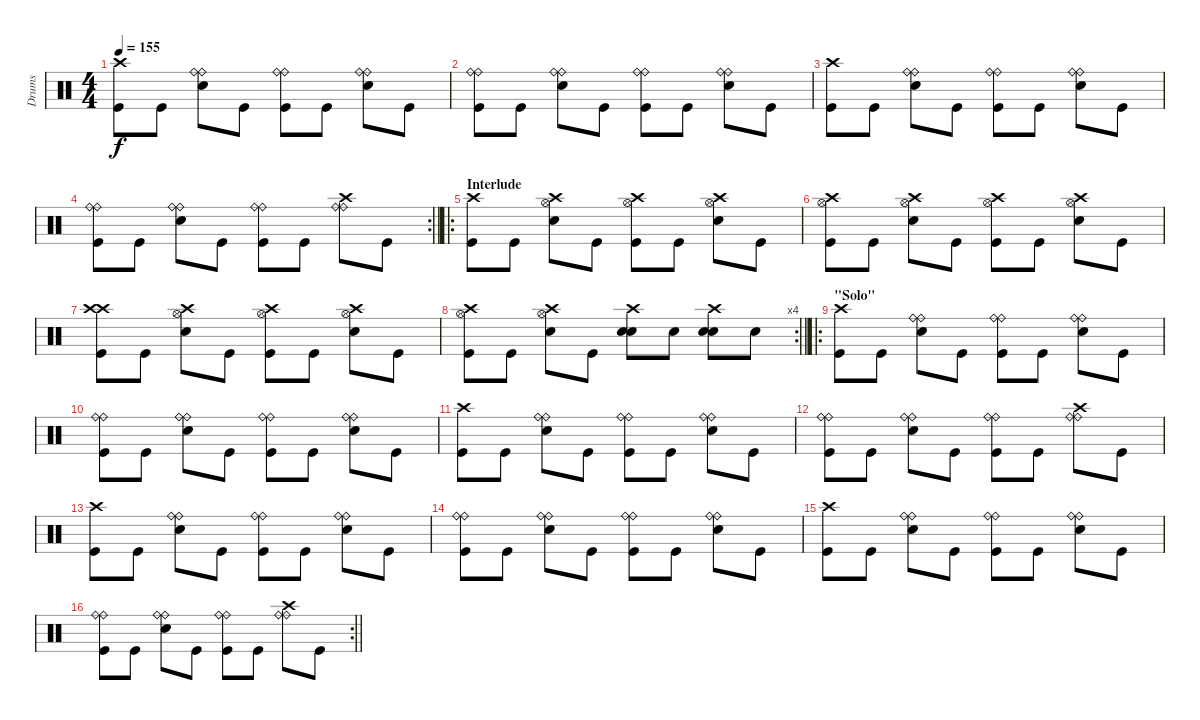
\track ("Drums" "Drums") {instrument percussion}
\staff {score}
\articulation defaults
\ts (4 4)
\tempo 155
\clef neutral
\ks c
("Crash high (hit)" "Kick (hit)").8{dy f} "Kick (hit)".8 ("Electric Snare (hit)" "Ride (bell)" "Ride (bell)").8 "Kick (hit)".8 ("Kick (hit)" "Ride (bell)" "Ride (bell)").8 "Kick (hit)".8 ("Electric Snare (hit)" "Ride (bell)" "Ride (bell)").8 "Kick (hit)".8 |
("Kick (hit)" "Ride (bell)" "Ride (bell)").8 "Kick (hit)".8 ("Electric Snare (hit)" "Ride (bell)" "Ride (bell)").8 "Kick (hit)".8 ("Kick (hit)" "Ride (bell)" "Ride (bell)").8 "Kick (hit)".8 ("Electric Snare (hit)" "Ride (bell)" "Ride (bell)").8 "Kick (hit)".8 |
("Crash high (hit)" "Kick (hit)").8 "Kick (hit)".8 ("Electric Snare (hit)" "Ride (bell)" "Ride (bell)").8 "Kick (hit)".8 ("Kick (hit)" "Ride (bell)" "Ride (bell)").8 "Kick (hit)".8 ("Electric Snare (hit)" "Ride (bell)" "Ride (bell)").8 "Kick (hit)".8 |
\rc 2
\barLineRight lightlight
("Kick (hit)" "Ride (bell)" "Ride (bell)").8 "Kick (hit)".8 ("Electric Snare (hit)" "Ride (bell)" "Ride (bell)").8 "Kick (hit)".8 ("Kick (hit)" "Ride (bell)" "Ride (bell)").8 "Kick (hit)".8 ("Crash high (hit)" "Ride (bell)" "Ride (bell)").8 "Kick (hit)".8 |
\ro
\section ("" "Interlude")
("Crash high (hit)" "Kick (hit)").8 "Kick (hit)".8 ("Electric Snare (hit)" "Hi-Hat (open)" "Crash high (hit)").8 "Kick (hit)".8 ("Kick (hit)" "Hi-Hat (open)" "Crash high (hit)").8 "Kick (hit)".8 ("Electric Snare (hit)" "Hi-Hat (open)" "Crash high (hit)").8 "Kick (hit)".8 |
("Kick (hit)" "Hi-Hat (open)" "Crash high (hit)").8 "Kick (hit)".8 ("Electric Snare (hit)" "Hi-Hat (open)" "Crash high (hit)").8 "Kick (hit)".8 ("Kick (hit)" "Hi-Hat (open)" "Crash high (hit)").8 "Kick (hit)".8 ("Electric Snare (hit)" "Hi-Hat (open)" "Crash high (hit)").8 "Kick (hit)".8 |
("Crash high (hit)" "Kick (hit)" "Crash high (hit)").8 "Kick (hit)".8 ("Electric Snare (hit)" "Hi-Hat (open)" "Crash high (hit)").8 "Kick (hit)".8 ("Kick (hit)" "Hi-Hat (open)" "Crash high (hit)").8 "Kick (hit)".8 ("Electric Snare (hit)" "Hi-Hat (open)" "Crash high (hit)").8 "Kick (hit)".8 |
\rc 4
\barLineRight lightlight
("Kick (hit)" "Hi-Hat (open)" "Crash high (hit)").8 "Kick (hit)".8 ("Electric Snare (hit)" "Hi-Hat (open)" "Crash high (hit)").8 "Kick (hit)".8 ("Electric Snare (hit)" "Electric Snare (hit)" "Crash high (hit)").8 "Electric Snare (hit)".8 ("Electric Snare (hit)" "Electric Snare (hit)" "Crash high (hit)").8 "Electric Snare (hit)".8 |
\ro
\section ("" "\"Solo\"")
("Crash high (hit)" "Kick (hit)").8 "Kick (hit)".8 ("Electric Snare (hit)" "Ride (bell)" "Ride (bell)").8 "Kick (hit)".8 ("Kick (hit)" "Ride (bell)" "Ride (bell)").8 "Kick (hit)".8 ("Electric Snare (hit)" "Ride (bell)" "Ride (bell)").8 "Kick (hit)".8 |
("Kick (hit)" "Ride (bell)" "Ride (bell)").8 "Kick (hit)".8 ("Electric Snare (hit)" "Ride (bell)" "Ride (bell)").8 "Kick (hit)".8 ("Kick (hit)" "Ride (bell)" "Ride (bell)").8 "Kick (hit)".8 ("Electric Snare (hit)" "Ride (bell)" "Ride (bell)").8 "Kick (hit)".8 |
("Crash high (hit)" "Kick (hit)").8 "Kick (hit)".8 ("Electric Snare (hit)" "Ride (bell)" "Ride (bell)").8 "Kick (hit)".8 ("Kick (hit)" "Ride (bell)" "Ride (bell)").8 "Kick (hit)".8 ("Electric Snare (hit)" "Ride (bell)" "Ride (bell)").8 "Kick (hit)".8 |
("Kick (hit)" "Ride (bell)" "Ride (bell)").8 "Kick (hit)".8 ("Electric Snare (hit)" "Ride (bell)" "Ride (bell)").8 "Kick (hit)".8 ("Kick (hit)" "Ride (bell)" "Ride (bell)").8 "Kick (hit)".8 ("Crash high (hit)" "Ride (bell)" "Ride (bell)").8 "Kick (hit)".8 |
("Crash high (hit)" "Kick (hit)").8 "Kick (hit)".8 ("Electric Snare (hit)" "Ride (bell)" "Ride (bell)").8 "Kick (hit)".8 ("Kick (hit)" "Ride (bell)" "Ride (bell)").8 "Kick (hit)".8 ("Electric Snare (hit)" "Ride (bell)" "Ride (bell)").8 "Kick (hit)".8 |
("Kick (hit)" "Ride (bell)" "Ride (bell)").8 "Kick (hit)".8 ("Electric Snare (hit)" "Ride (bell)" "Ride (bell)").8 "Kick (hit)".8 ("Kick (hit)" "Ride (bell)" "Ride (bell)").8 "Kick (hit)".8 ("Electric Snare (hit)" "Ride (bell)" "Ride (bell)").8 "Kick (hit)".8 |
("Crash high (hit)" "Kick (hit)").8 "Kick (hit)".8 ("Electric Snare (hit)" "Ride (bell)" "Ride (bell)").8 "Kick (hit)".8 ("Kick (hit)" "Ride (bell)" "Ride (bell)").8 "Kick (hit)".8 ("Electric Snare (hit)" "Ride (bell)" "Ride (bell)").8 "Kick (hit)".8 |
\rc 2
\barLineRight lightlight
("Kick (hit)" "Ride (bell)" "Ride (bell)").8 "Kick (hit)".8 ("Electric Snare (hit)" "Ride (bell)" "Ride (bell)").8 "Kick (hit)".8 ("Kick (hit)" "Ride (bell)" "Ride (bell)").8 "Kick (hit)".8 ("Crash high (hit)" "Ride (bell)" "Ride (bell)").8 "Kick (hit)".8
